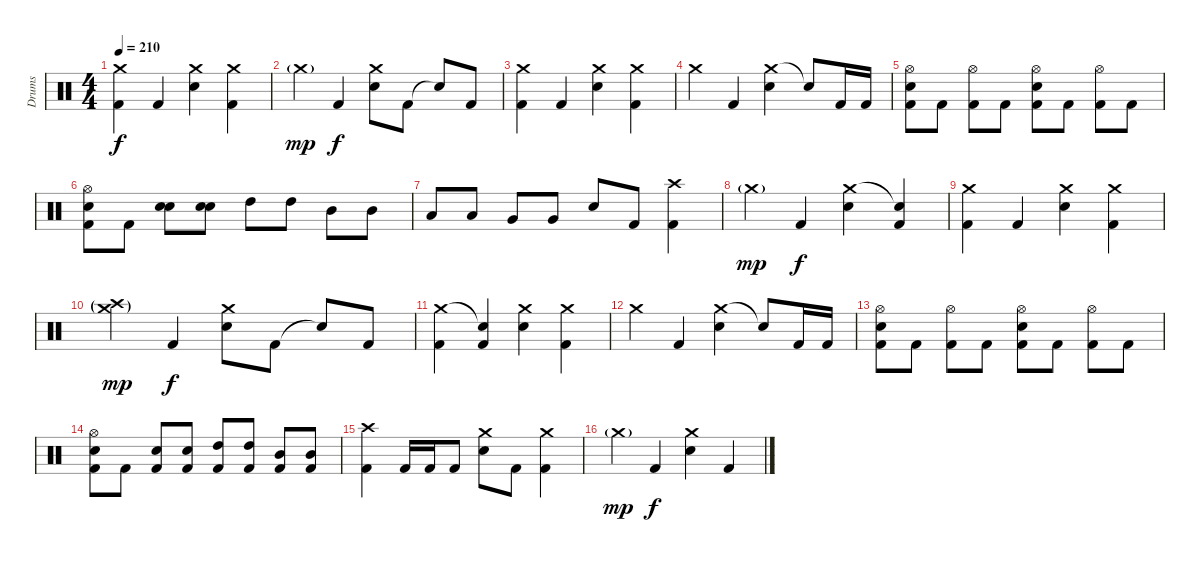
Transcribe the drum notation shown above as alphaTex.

\track ("Drums" "Drums") {instrument percussion}
\staff {score}
\articulation defaults
\ts (4 4)
\tempo 210
\clef neutral
\ks c
("Crash medium (hit)" "Kick (hit) 2").4{dy f} "Kick (hit) 2".4 ("Crash medium (hit)" "Electric Snare (hit)").4 ("Crash medium (hit)" "Kick (hit) 2").4 |
"Crash medium (hit)"{g}.4{dy mp} "Kick (hit) 2".4{dy f} ("Crash medium (hit)" "Electric Snare (hit)").8 "Kick (hit) 2".8 "Snare (hit)"{t}.8 "Kick (hit) 2".8 |
("Crash medium (hit)" "Kick (hit) 2").4 "Kick (hit) 2".4 ("Crash medium (hit)" "Electric Snare (hit)").4 ("Crash medium (hit)" "Kick (hit) 2").4 |
"Crash medium (hit)".4 "Kick (hit) 2".4 ("Crash medium (hit)" "Electric Snare (hit)").4 "Snare (hit)"{t}.8 "Kick (hit) 2".16 "Kick (hit) 2".16 |
("Hi-Hat (open)" "Electric Snare (hit)" "Kick (hit) 2").8 "Kick (hit) 2".8 ("Hi-Hat (open)" "Kick (hit) 2").8 "Kick (hit) 2".8 ("Hi-Hat (open)" "Electric Snare (hit)" "Kick (hit) 2").8 "Kick (hit) 2".8 ("Hi-Hat (open)" "Kick (hit) 2").8 "Kick (hit) 2".8 |
("Hi-Hat (open)" "Electric Snare (hit)" "Kick (hit) 2").8 "Kick (hit) 2".8 ("Snare (hit) 2" "Electric Snare (hit)").8 ("Snare (hit) 2" "Electric Snare (hit)").8 "High Tom (hit)".8 "High Tom (hit)".8 "Mid Tom (hit)".8 "Mid Tom (hit)".8 |
"Low Tom (hit)".8 "Low Tom (hit)".8 "Very Low Tom (hit)".8 "Very Low Tom (hit)".8 "Electric Snare (hit)".8 "Kick (hit) 2".8 ("Crash high (hit)" "Kick (hit) 2").4 |
"Crash medium (hit)"{g}.4{dy mp} "Kick (hit) 2".4{dy f} ("Crash medium (hit)" "Electric Snare (hit)").4 ("Snare (hit)"{t} "Kick (hit) 2").4 |
("Crash medium (hit)" "Kick (hit) 2").4 "Kick (hit) 2".4 ("Crash medium (hit)" "Electric Snare (hit)").4 ("Crash medium (hit)" "Kick (hit) 2").4 |
("Crash medium (hit)"{g} "Crash high (hit)"{g}).4{dy mp} "Kick (hit) 2".4{dy f} ("Crash medium (hit)" "Electric Snare (hit)").8 "Kick (hit) 2".8 "Snare (hit)"{t}.8 "Kick (hit) 2".8 |
("Crash medium (hit)" "Kick (hit) 2").4 ("Snare (hit)"{t} "Kick (hit) 2").4 ("Crash medium (hit)" "Electric Snare (hit)").4 ("Crash medium (hit)" "Kick (hit) 2").4 |
"Crash medium (hit)".4 "Kick (hit) 2".4 ("Crash medium (hit)" "Electric Snare (hit)").4 "Snare (hit)"{t}.8 "Kick (hit) 2".16 "Kick (hit) 2".16 |
("Hi-Hat (open)" "Electric Snare (hit)" "Kick (hit) 2").8 "Kick (hit) 2".8 ("Hi-Hat (open)" "Kick (hit) 2").8 "Kick (hit) 2".8 ("Hi-Hat (open)" "Electric Snare (hit)" "Kick (hit) 2").8 "Kick (hit) 2".8 ("Hi-Hat (open)" "Kick (hit) 2").8 "Kick (hit) 2".8 |
("Hi-Hat (open)" "Electric Snare (hit)" "Kick (hit) 2").8 "Kick (hit) 2".8 ("Electric Snare (hit)" "Kick (hit) 2").8 ("Electric Snare (hit)" "Kick (hit) 2").8 ("High Tom (hit)" "Kick (hit) 2").8 ("High Tom (hit)" "Kick (hit) 2").8 ("Mid Tom (hit)" "Kick (hit) 2").8 ("Mid Tom (hit)" "Kick (hit) 2").8 |
("Crash high (hit)" "Kick (hit) 2").4 "Kick (hit) 2".16 "Kick (hit) 2".16 "Kick (hit) 2".8 ("Crash medium (hit)" "Electric Snare (hit)").8 "Kick (hit) 2".8 ("Crash medium (hit)" "Kick (hit) 2").4 |
"Crash medium (hit)"{g}.4{dy mp} "Kick (hit) 2".4{dy f} ("Crash medium (hit)" "Electric Snare (hit)").4 "Kick (hit) 2".4
